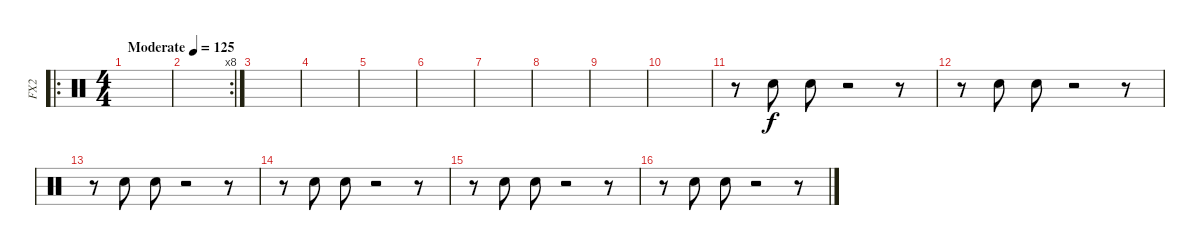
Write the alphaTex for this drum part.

\track ("FX2" "FX2") {instrument percussion}
\staff {score}
\articulation defaults
\ro
\ts (4 4)
\tempo (125 "Moderate")
\clef neutral
\ks c
|
\rc 8
|
|
|
|
|
|
|
|
|
r.8 "Hand Clap (hit)".8 "Hand Clap (hit)".8 r.2 r.8 |
r.8 "Hand Clap (hit)".8 "Hand Clap (hit)".8 r.2 r.8 |
r.8 "Hand Clap (hit)".8 "Hand Clap (hit)".8 r.2 r.8 |
r.8 "Hand Clap (hit)".8 "Hand Clap (hit)".8 r.2 r.8 |
r.8 "Hand Clap (hit)".8 "Hand Clap (hit)".8 r.2 r.8 |
r.8 "Hand Clap (hit)".8 "Hand Clap (hit)".8 r.2 r.8
